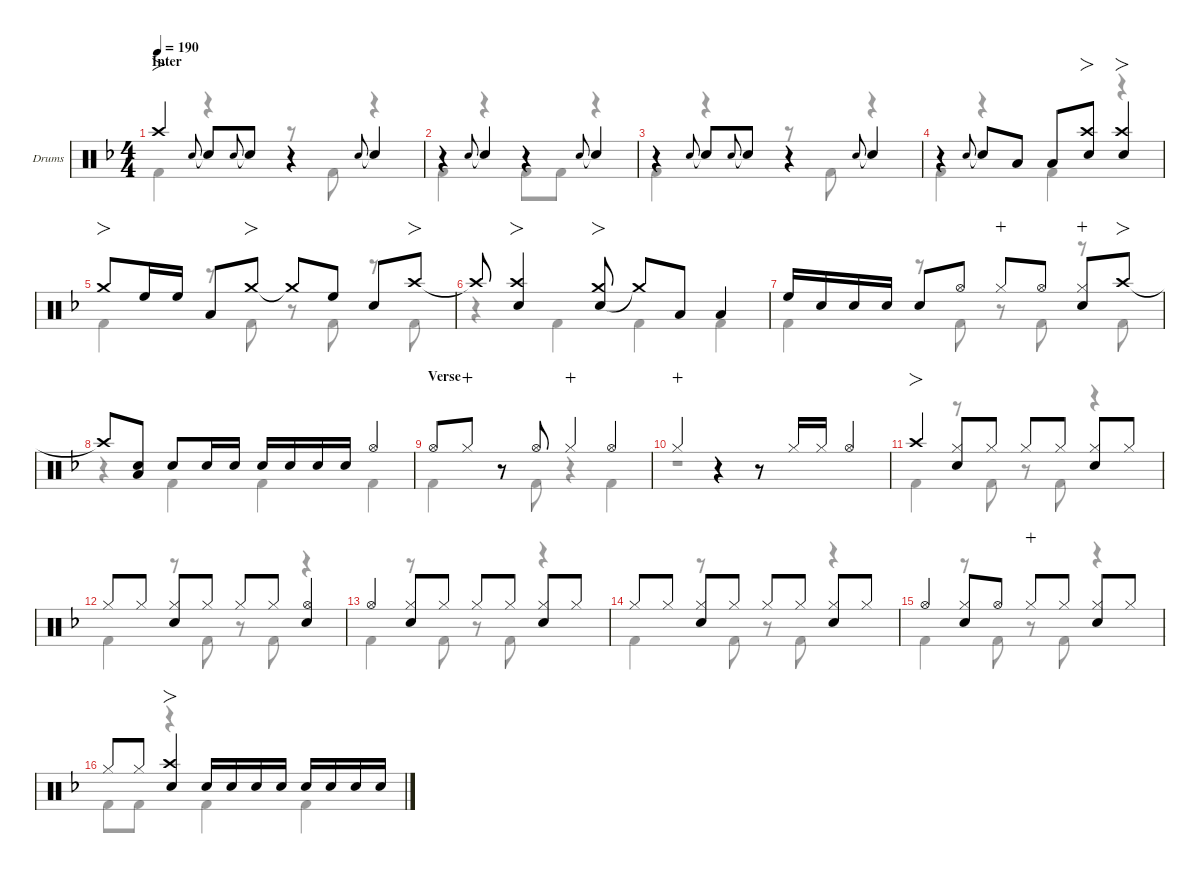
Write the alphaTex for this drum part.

\defaultSystemsLayout 4
\hideDynamics
\bracketExtendMode nobrackets
\firstSystemTrackNameOrientation horizontal
\track ("Drums" "Drums") {defaultSystemsLayout 4 instrument percussion}
\staff {score}
\articulation defaults
\voice
\ts (4 4)
\section ("" "Inter")
\tempo 190
\clef neutral
\ks f "Crash high (hit)"{acc forcenatural}.4{fo dy f} "Snare (hit) 2"{acc forcenatural}.8{gr onbeat} "Snare (hit) 2"{t acc forcenatural}.8 "Snare (hit) 2"{acc forcenatural}.8{gr onbeat} "Snare (hit) 2"{t acc forcenatural}.8
r.4 "Snare (hit) 2"{acc forcenatural}.8{gr onbeat} "Snare (hit) 2"{t acc forcenatural}.4 |
r.4 "Snare (hit) 2"{acc forcenatural}.8{gr onbeat} "Snare (hit) 2"{t acc forcenatural}.4 r.4 "Snare (hit) 2"{acc forcenatural}.8{gr onbeat} "Snare (hit) 2"{t acc forcenatural}.4 |
r.4 "Snare (hit) 2"{acc forcenatural}.8{gr onbeat} "Snare (hit) 2"{t acc forcenatural}.8 "Snare (hit) 2"{acc forcenatural}.8{gr onbeat} "Snare (hit) 2"{t acc forcenatural}.8 r.4 "Snare (hit) 2"{acc forcenatural}.8{gr onbeat} "Snare (hit) 2"{t acc forcenatural}.4 |
r.4 "Snare (hit) 2"{acc forcenatural}.8{gr onbeat} "Snare (hit) 2"{t acc forcenatural}.8 "Low Tom (hit)"{acc forcenatural}.8 "Low Tom (hit)"{acc forcenatural}.8 ("Snare (hit) 2"{acc forcenatural} "Crash high (hit)"{acc forcenatural}).8{fo} ("Snare (hit) 2"{acc forcenatural} "Crash high (hit)"{acc forcenatural}).4{fo} |
"Crash medium (hit)"{acc forcenatural}.8{fo} "High Floor Tom (hit)"{acc forcenatural}.16 "High Floor Tom (hit)"{acc forcenatural}.16{beam split} "Low Tom (hit)"{acc forcenatural}.8 "Crash medium (hit)"{acc forcenatural}.8{fo} "Crash medium (hit)"{t acc forcenatural}.8 "High Floor Tom (hit)"{acc forcenatural}.8 "Snare (hit) 2"{acc forcenatural}.8 "Crash high (hit)"{acc forcenatural}.8{fo} |
"Crash high (hit)"{t acc forcenatural}.8 ("Snare (hit) 2"{acc forcenatural} "Crash high (hit)"{acc forcenatural}).4{fo} ("Snare (hit) 2"{acc forcenatural} "Crash medium (hit)"{acc forcenatural}).8{fo} "Crash medium (hit)"{t acc forcenatural}.8 "Low Tom (hit)"{acc forcenatural}.8 "Low Tom (hit)"{acc forcenatural}.4 |
"High Floor Tom (hit)"{acc forcenatural}.16 "Snare (hit) 2"{acc forcenatural}.16{dy mf} "Snare (hit) 2"{acc forcenatural}.16{dy f} "Snare (hit) 2"{acc forcenatural}.16{dy mf beam split} "Snare (hit) 2"{acc forcenatural}.8{dy f} "Hi-Hat (open)"{acc forcenatural}.8 "Hi-Hat (closed)"{acc forcenatural}.8{dy mp wahc} "Hi-Hat (open)"{acc forcenatural}.8{dy f} ("Hi-Hat (closed)"{acc forcenatural} "Snare (hit) 2"{acc forcenatural}).8{wahc} "Crash high (hit)"{acc forcenatural}.8{fo} |
"Crash high (hit)"{t acc forcenatural}.8 ("Snare (hit) 2"{acc forcenatural} "Low Tom (hit)"{acc forcenatural}).8{beam split} "Snare (hit) 2"{acc forcenatural}.8 "Snare (hit) 2"{acc forcenatural}.16 "Snare (hit) 2"{acc forcenatural}.16 "Snare (hit) 2"{acc forcenatural}.16 "Snare (hit) 2"{acc forcenatural}.16{dy mf} "Snare (hit) 2"{acc forcenatural}.16{dy f} "Snare (hit) 2"{acc forcenatural}.16{dy mf} "Hi-Hat (open)"{acc forcenatural}.4{dy f} |
\section ("" "Verse")
"Hi-Hat (open)"{acc forcenatural}.8 "Hi-Hat (closed)"{acc forcenatural}.8{dy p wahc} r.8 "Hi-Hat (open)"{acc forcenatural}.8{dy f} "Hi-Hat (closed)"{acc forcenatural}.4{dy mp wahc} "Hi-Hat (open)"{acc forcenatural}.4{dy f} |
"Hi-Hat (closed)"{acc forcenatural}.4{dy mp wahc} r.4 r.8 "Hi-Hat (closed)"{acc forcenatural}.16{dy f} "Hi-Hat (closed)"{acc forcenatural}.16{dy mf} "Hi-Hat (open)"{acc forcenatural}.4{dy f} |
"Crash high (hit)"{acc forcenatural}.4{fo} ("Hi-Hat (closed)"{acc forcenatural} "Snare (hit) 2"{acc forcenatural}).8 "Hi-Hat (closed)"{acc forcenatural}.8{dy mf} "Hi-Hat (closed)"{acc forcenatural}.8{dy f} "Hi-Hat (closed)"{acc forcenatural}.8{dy mf} ("Hi-Hat (closed)"{acc forcenatural} "Snare (hit) 2"{acc forcenatural}).8{dy f} "Hi-Hat (closed)"{acc forcenatural}.8{dy mf} |
"Hi-Hat (closed)"{acc forcenatural}.8{dy f} "Hi-Hat (closed)"{acc forcenatural}.8{dy mf} ("Hi-Hat (closed)"{acc forcenatural} "Snare (hit) 2"{acc forcenatural}).8{dy f} "Hi-Hat (closed)"{acc forcenatural}.8{dy mf} "Hi-Hat (closed)"{acc forcenatural}.8{dy f} "Hi-Hat (closed)"{acc forcenatural}.8{dy mf} ("Hi-Hat (open)"{acc forcenatural} "Snare (hit) 2"{acc forcenatural}).4{dy f} |
"Hi-Hat (open)"{acc forcenatural}.4 ("Hi-Hat (closed)"{acc forcenatural} "Snare (hit) 2"{acc forcenatural}).8 "Hi-Hat (closed)"{acc forcenatural}.8{dy mf} "Hi-Hat (closed)"{acc forcenatural}.8{dy f} "Hi-Hat (closed)"{acc forcenatural}.8{dy mf} ("Hi-Hat (closed)"{acc forcenatural} "Snare (hit) 2"{acc forcenatural}).8{dy f} "Hi-Hat (closed)"{acc forcenatural}.8{dy mf} |
"Hi-Hat (closed)"{acc forcenatural}.8{dy f} "Hi-Hat (closed)"{acc forcenatural}.8{dy mf} ("Hi-Hat (closed)"{acc forcenatural} "Snare (hit) 2"{acc forcenatural}).8{dy f} "Hi-Hat (closed)"{acc forcenatural}.8{dy mf} "Hi-Hat (closed)"{acc forcenatural}.8{dy f} "Hi-Hat (closed)"{acc forcenatural}.8{dy mf} ("Hi-Hat (closed)"{acc forcenatural} "Snare (hit) 2"{acc forcenatural}).8{dy f} "Hi-Hat (closed)"{acc forcenatural}.8{dy mf} |
"Hi-Hat (open)"{acc forcenatural}.4{dy f} ("Hi-Hat (closed)"{acc forcenatural} "Snare (hit) 2"{acc forcenatural}).8 "Hi-Hat (open)"{acc forcenatural}.8 "Hi-Hat (closed)"{acc forcenatural}.8{dy mf wahc} "Hi-Hat (closed)"{acc forcenatural}.8 ("Hi-Hat (closed)"{acc forcenatural} "Snare (hit) 2"{acc forcenatural}).8{dy f} "Hi-Hat (closed)"{acc forcenatural}.8{dy mf} |
"Hi-Hat (closed)"{acc forcenatural}.8{dy f} "Hi-Hat (closed)"{acc forcenatural}.8{dy mf} ("Snare (hit) 2"{acc forcenatural} "Crash high (hit)"{acc forcenatural}).4{fo dy f} "Snare (hit) 2"{acc forcenatural}.16 "Snare (hit) 2"{acc forcenatural}.16{dy mf} "Snare (hit) 2"{acc forcenatural}.16{dy f} "Snare (hit) 2"{acc forcenatural}.16{dy mf beam split} "Snare (hit) 2"{acc forcenatural}.16{dy f} "Snare (hit) 2"{acc forcenatural}.16{dy mf} "Snare (hit) 2"{acc forcenatural}.16{dy f} "Snare (hit) 2"{acc forcenatural}.16{dy mf}
\voice
\clef neutral
\ottava regular
\simile none
\ks f "Kick (hit) 2"{acc forcenatural}.4{dy f}
r.4 r.8 "Kick (hit) 2"{acc forcenatural}.8 r.4 |
"Kick (hit) 2"{acc forcenatural}.4 r.4 "Kick (hit) 2"{acc forcenatural}.8 "Kick (hit) 2"{acc forcenatural}.8 r.4 |
"Kick (hit) 2"{acc forcenatural}.4 r.4 r.8 "Kick (hit) 2"{acc forcenatural}.8 r.4 |
"Kick (hit) 2"{acc forcenatural}.4 r.4 "Kick (hit) 2"{acc forcenatural}.4 r.4 |
"Kick (hit) 2"{acc forcenatural}.4 r.8 "Kick (hit) 2"{acc forcenatural}.8 r.8 "Kick (hit) 2"{acc forcenatural}.8 r.8 "Kick (hit) 2"{acc forcenatural}.8 |
r.4 "Kick (hit) 2"{acc forcenatural}.4 "Kick (hit) 2"{acc forcenatural}.4 "Kick (hit) 2"{acc forcenatural}.4 |
"Kick (hit) 2"{acc forcenatural}.4 r.8 "Kick (hit) 2"{acc forcenatural}.8 r.8 "Kick (hit) 2"{acc forcenatural}.8 r.8 "Kick (hit) 2"{acc forcenatural}.8 |
r.4 "Kick (hit) 2"{acc forcenatural}.4 "Kick (hit) 2"{acc forcenatural}.4 "Kick (hit) 2"{acc forcenatural}.4 |
"Kick (hit) 2"{acc forcenatural}.4 r.8 "Kick (hit) 2"{acc forcenatural}.8 r.4 "Kick (hit) 2"{acc forcenatural}.4 |
r.1 |
"Kick (hit) 2"{acc forcenatural}.4 r.8 "Kick (hit) 2"{acc forcenatural}.8 r.8 "Kick (hit) 2"{acc forcenatural}.8 r.4 |
"Kick (hit) 2"{acc forcenatural}.4 r.8 "Kick (hit) 2"{acc forcenatural}.8 r.8 "Kick (hit) 2"{acc forcenatural}.8 r.4 |
"Kick (hit) 2"{acc forcenatural}.4 r.8 "Kick (hit) 2"{acc forcenatural}.8 r.8 "Kick (hit) 2"{acc forcenatural}.8 r.4 |
"Kick (hit) 2"{acc forcenatural}.4 r.8 "Kick (hit) 2"{acc forcenatural}.8 r.8 "Kick (hit) 2"{acc forcenatural}.8 r.4 |
"Kick (hit) 2"{acc forcenatural}.4 r.8 "Kick (hit) 2"{acc forcenatural}.8 r.8 "Kick (hit) 2"{acc forcenatural}.8 r.4 |
"Kick (hit) 2"{acc forcenatural}.8 "Kick (hit) 2"{acc forcenatural}.8 r.4 "Kick (hit) 2"{acc forcenatural}.4 "Kick (hit) 2"{acc forcenatural}.4
